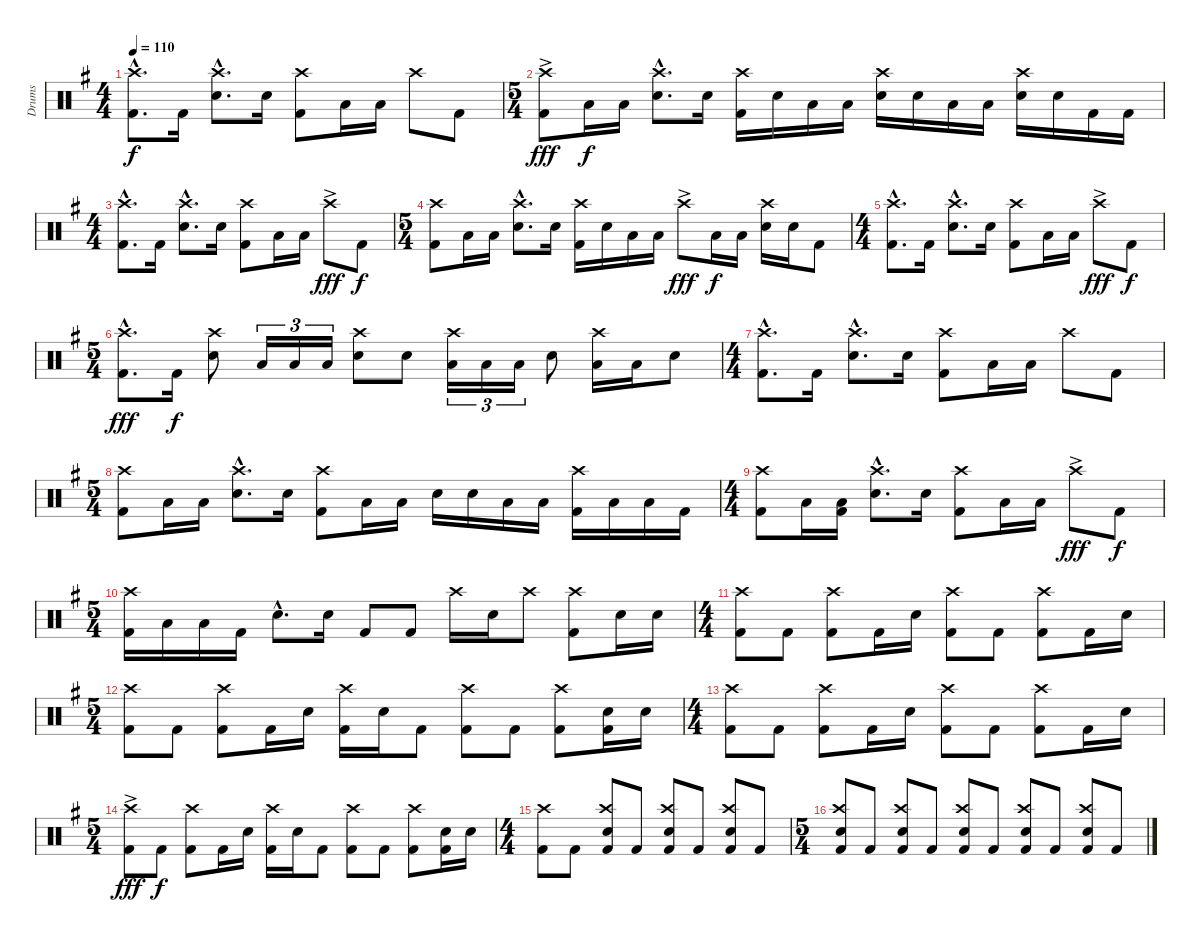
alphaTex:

\track ("Drums" "Drums") {instrument percussion}
\staff {score}
\articulation defaults
\ts (4 4)
\tempo 110
\clef neutral
\ks g
("Kick (hit) 2"{hac} "Crash high (hit)"{hac}).8{d dy f} "Kick (hit) 2".16 ("Snare (hit) 2"{hac} "Crash high (hit)"{hac}).8{d} "Snare (hit) 2".16 ("Kick (hit) 2" "Crash high (hit)").8 "Low Floor Tom (hit)".16 "Low Floor Tom (hit)".16 "Crash high (hit)".8 "Kick (hit) 2".8 |
\ts (5 4)
("Kick (hit) 2" "Crash high (hit)"{ac}).8{dy fff} "Low Floor Tom (hit)".16{dy f} "Low Floor Tom (hit)".16 ("Snare (hit) 2"{hac} "Crash high (hit)"{hac}).8{d} "Snare (hit) 2".16 ("Kick (hit) 2" "Crash high (hit)").16 "Snare (hit) 2".16 "Low Floor Tom (hit)".16 "Low Floor Tom (hit)".16 ("Snare (hit) 2" "Crash high (hit)").16 "Snare (hit) 2".16 "Low Floor Tom (hit)".16 "Low Floor Tom (hit)".16 ("Snare (hit) 2" "Crash high (hit)").16 "Snare (hit) 2".16 "Kick (hit) 2".16 "Kick (hit) 2".16 |
\ts (4 4)
("Kick (hit) 2"{hac} "Crash high (hit)"{hac}).8{d} "Kick (hit) 2".16 ("Snare (hit) 2"{hac} "Crash high (hit)"{hac}).8{d} "Snare (hit) 2".16 ("Kick (hit) 2" "Crash high (hit)").8 "Low Floor Tom (hit)".16 "Low Floor Tom (hit)".16 "Crash high (hit)"{ac}.8{dy fff} "Kick (hit) 2".8{dy f} |
\ts (5 4)
("Kick (hit) 2" "Crash high (hit)").8 "Low Floor Tom (hit)".16 "Low Floor Tom (hit)".16 ("Snare (hit) 2"{hac} "Crash high (hit)"{hac}).8{d} "Snare (hit) 2".16 ("Kick (hit) 2" "Crash high (hit)").16 "Snare (hit) 2".16 "Low Floor Tom (hit)".16 "Low Floor Tom (hit)".16 "Crash high (hit)"{ac}.8{dy fff} "Low Floor Tom (hit)".16{dy f} "Low Floor Tom (hit)".16 ("Snare (hit) 2" "Crash high (hit)").16 "Snare (hit) 2".16 "Kick (hit) 2".8 |
\ts (4 4)
("Kick (hit) 2"{hac} "Crash high (hit)"{hac}).8{d} "Kick (hit) 2".16 ("Snare (hit) 2"{hac} "Crash high (hit)"{hac}).8{d} "Snare (hit) 2".16 ("Kick (hit) 2" "Crash high (hit)").8 "Low Floor Tom (hit)".16 "Low Floor Tom (hit)".16 "Crash high (hit)"{ac}.8{dy fff} "Kick (hit) 2".8{dy f} |
\ts (5 4)
("Kick (hit) 2"{hac} "Crash high (hit)"{hac}).8{d dy fff} "Kick (hit) 2".16{dy f} ("Snare (hit) 2" "Crash high (hit)").8 "Low Floor Tom (hit)".16{tu (3 2)} "Low Floor Tom (hit)".16{tu (3 2)} "Low Floor Tom (hit)".16{tu (3 2)} ("Snare (hit) 2" "Crash high (hit)").8 "Snare (hit) 2".8 ("Low Floor Tom (hit)" "Crash high (hit)").16{tu (3 2)} "Low Floor Tom (hit)".16{tu (3 2)} "Low Floor Tom (hit)".16{tu (3 2)} "Snare (hit) 2".8 ("Low Floor Tom (hit)" "Crash high (hit)").16 "Low Floor Tom (hit)".16 "Snare (hit) 2".8 |
\ts (4 4)
("Kick (hit) 2"{hac} "Crash high (hit)"{hac}).8{d} "Kick (hit) 2".16 ("Snare (hit) 2"{hac} "Crash high (hit)"{hac}).8{d} "Snare (hit) 2".16 ("Kick (hit) 2" "Crash high (hit)").8 "Low Floor Tom (hit)".16 "Low Floor Tom (hit)".16 "Crash high (hit)".8 "Kick (hit) 2".8 |
\ts (5 4)
("Kick (hit) 2" "Crash high (hit)").8 "Low Floor Tom (hit)".16 "Low Floor Tom (hit)".16 ("Snare (hit) 2"{hac} "Crash high (hit)"{hac}).8{d} "Snare (hit) 2".16 ("Kick (hit) 2" "Crash high (hit)").8 "Low Floor Tom (hit)".16 "Low Floor Tom (hit)".16 "Snare (hit) 2".16 "Snare (hit) 2".16 "Low Floor Tom (hit)".16 "Low Floor Tom (hit)".16 ("Kick (hit) 2" "Crash high (hit)").16 "Low Floor Tom (hit)".16 "Low Floor Tom (hit)".16 "Kick (hit) 2".16 |
\ts (4 4)
("Kick (hit) 2" "Crash high (hit)").8 "Low Floor Tom (hit)".16 ("Kick (hit) 2" "Low Floor Tom (hit)").16 ("Snare (hit) 2"{hac} "Crash high (hit)"{hac}).8{d} "Snare (hit) 2".16 ("Kick (hit) 2" "Crash high (hit)").8 "Low Floor Tom (hit)".16 "Low Floor Tom (hit)".16 "Crash high (hit)"{ac}.8{dy fff} "Kick (hit) 2".8{dy f} |
\ts (5 4)
("Kick (hit) 2" "Crash high (hit)").16 "Low Floor Tom (hit)".16 "Low Floor Tom (hit)".16 "Kick (hit) 2".16 "Snare (hit) 2"{hac}.8{d} "Snare (hit) 2".16 "Kick (hit) 2".8 "Kick (hit) 2".8 "Crash high (hit)".16 "Snare (hit) 2".16 "Crash high (hit)".8 ("Kick (hit) 2" "Crash high (hit)").8 "Snare (hit) 2".16 "Snare (hit) 2".16 |
\ts (4 4)
("Kick (hit) 2" "Crash high (hit)").8 "Kick (hit) 2".8 ("Kick (hit) 2" "Crash high (hit)").8 "Kick (hit) 2".16 "Snare (hit) 2".16 ("Kick (hit) 2" "Crash high (hit)").8 "Kick (hit) 2".8 ("Kick (hit) 2" "Crash high (hit)").8 "Kick (hit) 2".16 "Snare (hit) 2".16 |
\ts (5 4)
("Kick (hit) 2" "Crash high (hit)").8 "Kick (hit) 2".8 ("Kick (hit) 2" "Crash high (hit)").8 "Kick (hit) 2".16 "Snare (hit) 2".16 ("Kick (hit) 2" "Crash high (hit)").16 "Snare (hit) 2".16 "Kick (hit) 2".8 ("Kick (hit) 2" "Crash high (hit)").8 "Kick (hit) 2".8 ("Kick (hit) 2" "Crash high (hit)").8 ("Kick (hit) 2" "Snare (hit) 2").16 "Snare (hit) 2".16 |
\ts (4 4)
("Kick (hit) 2" "Crash high (hit)").8 "Kick (hit) 2".8 ("Kick (hit) 2" "Crash high (hit)").8 "Kick (hit) 2".16 "Snare (hit) 2".16 ("Kick (hit) 2" "Crash high (hit)").8 "Kick (hit) 2".8 ("Kick (hit) 2" "Crash high (hit)").8 "Kick (hit) 2".16 "Snare (hit) 2".16 |
\ts (5 4)
("Kick (hit) 2" "Crash high (hit)"{ac}).8{dy fff} "Kick (hit) 2".8{dy f} ("Kick (hit) 2" "Crash high (hit)").8 "Kick (hit) 2".16 "Snare (hit) 2".16 ("Kick (hit) 2" "Crash high (hit)").16 "Snare (hit) 2".16 "Kick (hit) 2".8 ("Kick (hit) 2" "Crash high (hit)").8 "Kick (hit) 2".8 ("Kick (hit) 2" "Crash high (hit)").8 ("Kick (hit) 2" "Snare (hit) 2").16 "Snare (hit) 2".16 |
\ts (4 4)
("Kick (hit) 2" "Crash high (hit)").8 "Kick (hit) 2".8 ("Kick (hit) 2" "Snare (hit) 2" "Crash high (hit)").8 "Kick (hit) 2".8 ("Kick (hit) 2" "Snare (hit) 2" "Crash high (hit)").8 "Kick (hit) 2".8 ("Kick (hit) 2" "Snare (hit) 2" "Crash high (hit)").8 "Kick (hit) 2".8 |
\ts (5 4)
("Kick (hit) 2" "Snare (hit) 2" "Crash high (hit)").8 "Kick (hit) 2".8 ("Kick (hit) 2" "Snare (hit) 2" "Crash high (hit)").8 "Kick (hit) 2".8 ("Kick (hit) 2" "Snare (hit) 2" "Crash high (hit)").8 "Kick (hit) 2".8 ("Kick (hit) 2" "Snare (hit) 2" "Crash high (hit)").8 "Kick (hit) 2".8 ("Kick (hit) 2" "Snare (hit) 2" "Crash high (hit)").8 "Kick (hit) 2".8
